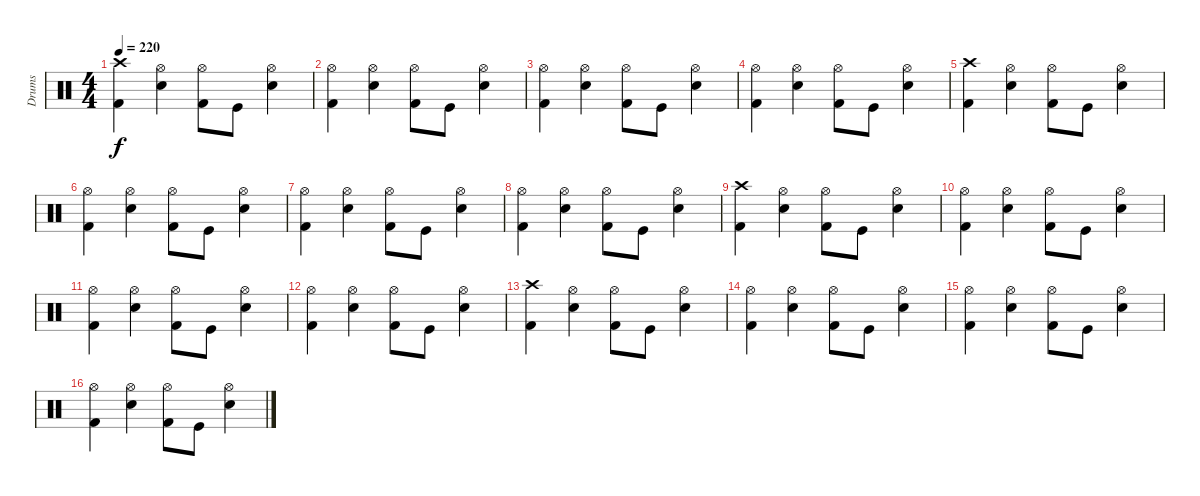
\track ("Drums" "Drums") {instrument percussion}
\staff {score}
\articulation defaults
\ts (4 4)
\tempo 220
\clef neutral
\ks c
("Crash high (hit)" "Kick (hit) 2").4{dy f} ("Hi-Hat (open)" "Electric Snare (hit)").4 ("Hi-Hat (open)" "Kick (hit) 2").8 "Kick (hit)".8 ("Hi-Hat (open)" "Electric Snare (hit)").4 |
("Hi-Hat (open)" "Kick (hit) 2").4 ("Hi-Hat (open)" "Electric Snare (hit)").4 ("Hi-Hat (open)" "Kick (hit) 2").8 "Kick (hit)".8 ("Hi-Hat (open)" "Electric Snare (hit)").4 |
("Hi-Hat (open)" "Kick (hit) 2").4 ("Hi-Hat (open)" "Electric Snare (hit)").4 ("Hi-Hat (open)" "Kick (hit) 2").8 "Kick (hit)".8 ("Hi-Hat (open)" "Electric Snare (hit)").4 |
("Hi-Hat (open)" "Kick (hit) 2").4 ("Hi-Hat (open)" "Electric Snare (hit)").4 ("Hi-Hat (open)" "Kick (hit) 2").8 "Kick (hit)".8 ("Hi-Hat (open)" "Electric Snare (hit)").4 |
("Crash high (hit)" "Kick (hit) 2").4 ("Hi-Hat (open)" "Electric Snare (hit)").4 ("Hi-Hat (open)" "Kick (hit) 2").8 "Kick (hit)".8 ("Hi-Hat (open)" "Electric Snare (hit)").4 |
("Hi-Hat (open)" "Kick (hit) 2").4 ("Hi-Hat (open)" "Electric Snare (hit)").4 ("Hi-Hat (open)" "Kick (hit) 2").8 "Kick (hit)".8 ("Hi-Hat (open)" "Electric Snare (hit)").4 |
("Hi-Hat (open)" "Kick (hit) 2").4 ("Hi-Hat (open)" "Electric Snare (hit)").4 ("Hi-Hat (open)" "Kick (hit) 2").8 "Kick (hit)".8 ("Hi-Hat (open)" "Electric Snare (hit)").4 |
("Hi-Hat (open)" "Kick (hit) 2").4 ("Hi-Hat (open)" "Electric Snare (hit)").4 ("Hi-Hat (open)" "Kick (hit) 2").8 "Kick (hit)".8 ("Hi-Hat (open)" "Electric Snare (hit)").4 |
("Crash high (hit)" "Kick (hit) 2").4 ("Hi-Hat (open)" "Electric Snare (hit)").4 ("Hi-Hat (open)" "Kick (hit) 2").8 "Kick (hit)".8 ("Hi-Hat (open)" "Electric Snare (hit)").4 |
("Hi-Hat (open)" "Kick (hit) 2").4 ("Hi-Hat (open)" "Electric Snare (hit)").4 ("Hi-Hat (open)" "Kick (hit) 2").8 "Kick (hit)".8 ("Hi-Hat (open)" "Electric Snare (hit)").4 |
("Hi-Hat (open)" "Kick (hit) 2").4 ("Hi-Hat (open)" "Electric Snare (hit)").4 ("Hi-Hat (open)" "Kick (hit) 2").8 "Kick (hit)".8 ("Hi-Hat (open)" "Electric Snare (hit)").4 |
("Hi-Hat (open)" "Kick (hit) 2").4 ("Hi-Hat (open)" "Electric Snare (hit)").4 ("Hi-Hat (open)" "Kick (hit) 2").8 "Kick (hit)".8 ("Hi-Hat (open)" "Electric Snare (hit)").4 |
("Crash high (hit)" "Kick (hit) 2").4 ("Hi-Hat (open)" "Electric Snare (hit)").4 ("Hi-Hat (open)" "Kick (hit) 2").8 "Kick (hit)".8 ("Hi-Hat (open)" "Electric Snare (hit)").4 |
("Hi-Hat (open)" "Kick (hit) 2").4 ("Hi-Hat (open)" "Electric Snare (hit)").4 ("Hi-Hat (open)" "Kick (hit) 2").8 "Kick (hit)".8 ("Hi-Hat (open)" "Electric Snare (hit)").4 |
("Hi-Hat (open)" "Kick (hit) 2").4 ("Hi-Hat (open)" "Electric Snare (hit)").4 ("Hi-Hat (open)" "Kick (hit) 2").8 "Kick (hit)".8 ("Hi-Hat (open)" "Electric Snare (hit)").4 |
("Hi-Hat (open)" "Kick (hit) 2").4 ("Hi-Hat (open)" "Electric Snare (hit)").4 ("Hi-Hat (open)" "Kick (hit) 2").8 "Kick (hit)".8 ("Hi-Hat (open)" "Electric Snare (hit)").4
